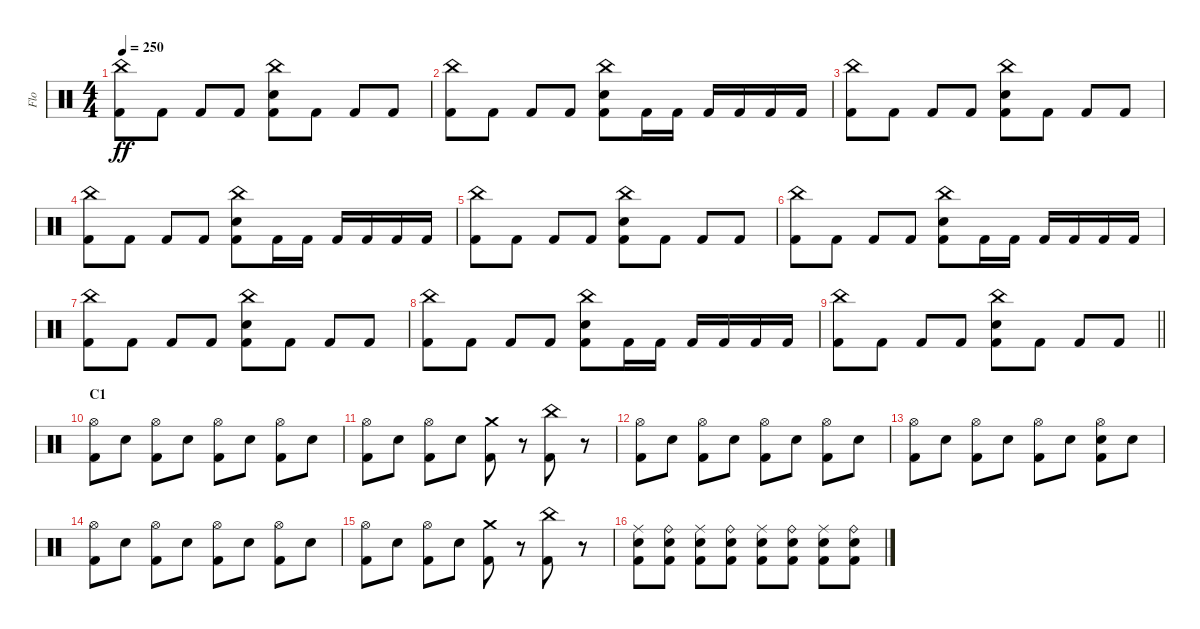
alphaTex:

\track ("Flo" "Flo") {instrument percussion}
\staff {score}
\articulation defaults
\ts (4 4)
\tempo 250
\clef neutral
\ks c
("China (hit)" "Kick (hit) 2").8{dy ff} "Kick (hit) 2".8 "Kick (hit) 2".8 "Kick (hit) 2".8 ("China (hit)" "Electric Snare (hit)" "Kick (hit) 2").8 "Kick (hit) 2".8 "Kick (hit) 2".8 "Kick (hit) 2".8 |
("China (hit)" "Kick (hit) 2").8 "Kick (hit) 2".8 "Kick (hit) 2".8 "Kick (hit) 2".8 ("China (hit)" "Electric Snare (hit)" "Kick (hit) 2").8 "Kick (hit) 2".16 "Kick (hit) 2".16 "Kick (hit) 2".16 "Kick (hit) 2".16 "Kick (hit) 2".16 "Kick (hit) 2".16 |
("China (hit)" "Kick (hit) 2").8 "Kick (hit) 2".8 "Kick (hit) 2".8 "Kick (hit) 2".8 ("China (hit)" "Electric Snare (hit)" "Kick (hit) 2").8 "Kick (hit) 2".8 "Kick (hit) 2".8 "Kick (hit) 2".8 |
("China (hit)" "Kick (hit) 2").8 "Kick (hit) 2".8 "Kick (hit) 2".8 "Kick (hit) 2".8 ("China (hit)" "Electric Snare (hit)" "Kick (hit) 2").8 "Kick (hit) 2".16 "Kick (hit) 2".16 "Kick (hit) 2".16 "Kick (hit) 2".16 "Kick (hit) 2".16 "Kick (hit) 2".16 |
("China (hit)" "Kick (hit) 2").8 "Kick (hit) 2".8 "Kick (hit) 2".8 "Kick (hit) 2".8 ("China (hit)" "Electric Snare (hit)" "Kick (hit) 2").8 "Kick (hit) 2".8 "Kick (hit) 2".8 "Kick (hit) 2".8 |
("China (hit)" "Kick (hit) 2").8 "Kick (hit) 2".8 "Kick (hit) 2".8 "Kick (hit) 2".8 ("China (hit)" "Electric Snare (hit)" "Kick (hit) 2").8 "Kick (hit) 2".16 "Kick (hit) 2".16 "Kick (hit) 2".16 "Kick (hit) 2".16 "Kick (hit) 2".16 "Kick (hit) 2".16 |
("China (hit)" "Kick (hit) 2").8 "Kick (hit) 2".8 "Kick (hit) 2".8 "Kick (hit) 2".8 ("China (hit)" "Electric Snare (hit)" "Kick (hit) 2").8 "Kick (hit) 2".8 "Kick (hit) 2".8 "Kick (hit) 2".8 |
("China (hit)" "Kick (hit) 2").8 "Kick (hit) 2".8 "Kick (hit) 2".8 "Kick (hit) 2".8 ("China (hit)" "Electric Snare (hit)" "Kick (hit) 2").8 "Kick (hit) 2".16 "Kick (hit) 2".16 "Kick (hit) 2".16 "Kick (hit) 2".16 "Kick (hit) 2".16 "Kick (hit) 2".16 |
\barLineRight lightlight
("China (hit)" "Kick (hit) 2").8 "Kick (hit) 2".8 "Kick (hit) 2".8 "Kick (hit) 2".8 ("China (hit)" "Electric Snare (hit)" "Kick (hit) 2").8 "Kick (hit) 2".8 "Kick (hit) 2".8 "Kick (hit) 2".8 |
\section ("" "C1")
("Hi-Hat (open)" "Kick (hit) 2").8 "Electric Snare (hit)".8 ("Hi-Hat (open)" "Kick (hit) 2").8 "Electric Snare (hit)".8 ("Hi-Hat (open)" "Kick (hit) 2").8 "Electric Snare (hit)".8 ("Hi-Hat (open)" "Kick (hit) 2").8 "Electric Snare (hit)".8 |
("Hi-Hat (open)" "Kick (hit) 2").8 "Electric Snare (hit)".8 ("Hi-Hat (open)" "Kick (hit) 2").8 "Electric Snare (hit)".8 ("Crash medium (hit)" "Kick (hit) 2").8 r.8 ("China (hit)" "Kick (hit) 2").8 r.8 |
("Hi-Hat (open)" "Kick (hit) 2").8 "Electric Snare (hit)".8 ("Hi-Hat (open)" "Kick (hit) 2").8 "Electric Snare (hit)".8 ("Hi-Hat (open)" "Kick (hit) 2").8 "Electric Snare (hit)".8 ("Hi-Hat (open)" "Kick (hit) 2").8 "Electric Snare (hit)".8 |
("Hi-Hat (open)" "Kick (hit) 2").8 "Electric Snare (hit)".8 ("Hi-Hat (open)" "Kick (hit) 2").8 "Electric Snare (hit)".8 ("Hi-Hat (open)" "Kick (hit) 2").8 "Electric Snare (hit)".8 ("Hi-Hat (open)" "Electric Snare (hit)" "Kick (hit) 2").8 "Electric Snare (hit)".8 |
("Hi-Hat (open)" "Kick (hit) 2").8 "Electric Snare (hit)".8 ("Hi-Hat (open)" "Kick (hit) 2").8 "Electric Snare (hit)".8 ("Hi-Hat (open)" "Kick (hit) 2").8 "Electric Snare (hit)".8 ("Hi-Hat (open)" "Kick (hit) 2").8 "Electric Snare (hit)".8 |
("Hi-Hat (open)" "Kick (hit) 2").8 "Electric Snare (hit)".8 ("Hi-Hat (open)" "Kick (hit) 2").8 "Electric Snare (hit)".8 ("Crash medium (hit)" "Kick (hit) 2").8 r.8 ("China (hit)" "Kick (hit) 2").8 r.8 |
("Ride (middle)" "Electric Snare (hit)" "Kick (hit) 2").8 ("Ride (bell)" "Electric Snare (hit)" "Kick (hit) 2").8 ("Ride (middle)" "Electric Snare (hit)" "Kick (hit) 2").8 ("Ride (bell)" "Electric Snare (hit)" "Kick (hit) 2").8 ("Ride (middle)" "Electric Snare (hit)" "Kick (hit) 2").8 ("Ride (bell)" "Electric Snare (hit)" "Kick (hit) 2").8 ("Ride (middle)" "Electric Snare (hit)" "Kick (hit) 2").8 ("Ride (bell)" "Electric Snare (hit)" "Kick (hit) 2").8
